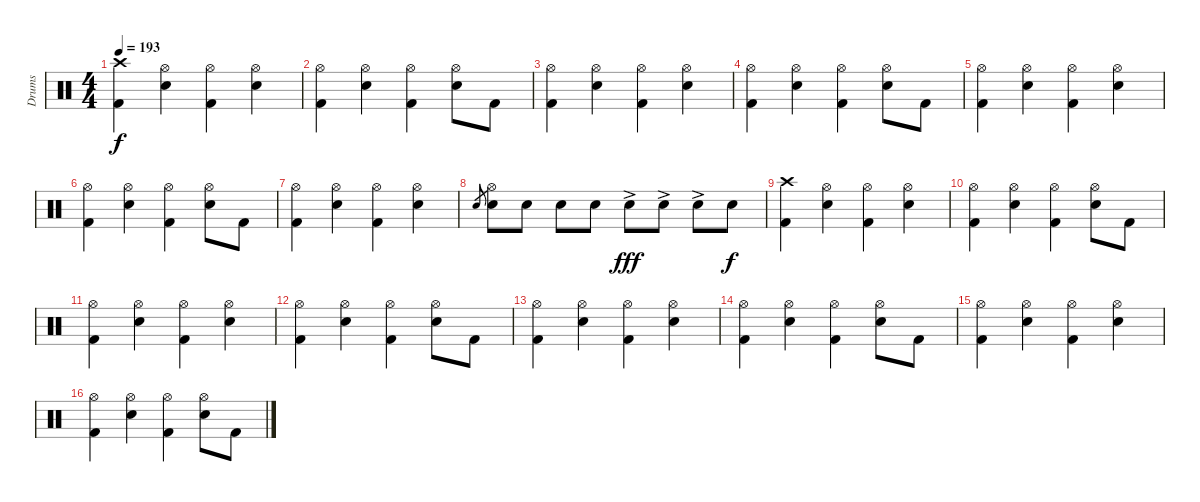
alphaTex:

\track ("Drums" "Drums") {instrument percussion}
\staff {score}
\articulation defaults
\ts (4 4)
\tempo 193
\clef neutral
\ks c
("Crash high (hit)" "Kick (hit) 2").4{dy f} ("Hi-Hat (open)" "Electric Snare (hit)").4 ("Hi-Hat (open)" "Kick (hit) 2").4 ("Hi-Hat (open)" "Electric Snare (hit)").4 |
("Hi-Hat (open)" "Kick (hit) 2").4 ("Hi-Hat (open)" "Electric Snare (hit)").4 ("Hi-Hat (open)" "Kick (hit) 2").4 ("Hi-Hat (open)" "Electric Snare (hit)").8 "Kick (hit) 2".8 |
("Hi-Hat (open)" "Kick (hit) 2").4 ("Hi-Hat (open)" "Electric Snare (hit)").4 ("Hi-Hat (open)" "Kick (hit) 2").4 ("Hi-Hat (open)" "Electric Snare (hit)").4 |
("Hi-Hat (open)" "Kick (hit) 2").4 ("Hi-Hat (open)" "Electric Snare (hit)").4 ("Hi-Hat (open)" "Kick (hit) 2").4 ("Hi-Hat (open)" "Electric Snare (hit)").8 "Kick (hit) 2".8 |
("Hi-Hat (open)" "Kick (hit) 2").4 ("Hi-Hat (open)" "Electric Snare (hit)").4 ("Hi-Hat (open)" "Kick (hit) 2").4 ("Hi-Hat (open)" "Electric Snare (hit)").4 |
("Hi-Hat (open)" "Kick (hit) 2").4 ("Hi-Hat (open)" "Electric Snare (hit)").4 ("Hi-Hat (open)" "Kick (hit) 2").4 ("Hi-Hat (open)" "Electric Snare (hit)").8 "Kick (hit) 2".8 |
("Hi-Hat (open)" "Kick (hit) 2").4 ("Hi-Hat (open)" "Electric Snare (hit)").4 ("Hi-Hat (open)" "Kick (hit) 2").4 ("Hi-Hat (open)" "Electric Snare (hit)").4 |
"Electric Snare (hit)".8{gr} ("Hi-Hat (open)" "Electric Snare (hit)").8 "Electric Snare (hit)".8 "Electric Snare (hit)".8 "Electric Snare (hit)".8 "Electric Snare (hit)"{ac}.8{dy fff} "Electric Snare (hit)"{ac}.8 "Electric Snare (hit)"{ac}.8 "Electric Snare (hit)".8{dy f} |
("Crash high (hit)" "Kick (hit) 2").4 ("Hi-Hat (open)" "Electric Snare (hit)").4 ("Hi-Hat (open)" "Kick (hit) 2").4 ("Hi-Hat (open)" "Electric Snare (hit)").4 |
("Hi-Hat (open)" "Kick (hit) 2").4 ("Hi-Hat (open)" "Electric Snare (hit)").4 ("Hi-Hat (open)" "Kick (hit) 2").4 ("Hi-Hat (open)" "Electric Snare (hit)").8 "Kick (hit) 2".8 |
("Hi-Hat (open)" "Kick (hit) 2").4 ("Hi-Hat (open)" "Electric Snare (hit)").4 ("Hi-Hat (open)" "Kick (hit) 2").4 ("Hi-Hat (open)" "Electric Snare (hit)").4 |
("Hi-Hat (open)" "Kick (hit) 2").4 ("Hi-Hat (open)" "Electric Snare (hit)").4 ("Hi-Hat (open)" "Kick (hit) 2").4 ("Hi-Hat (open)" "Electric Snare (hit)").8 "Kick (hit) 2".8 |
("Hi-Hat (open)" "Kick (hit) 2").4 ("Hi-Hat (open)" "Electric Snare (hit)").4 ("Hi-Hat (open)" "Kick (hit) 2").4 ("Hi-Hat (open)" "Electric Snare (hit)").4 |
("Hi-Hat (open)" "Kick (hit) 2").4 ("Hi-Hat (open)" "Electric Snare (hit)").4 ("Hi-Hat (open)" "Kick (hit) 2").4 ("Hi-Hat (open)" "Electric Snare (hit)").8 "Kick (hit) 2".8 |
("Hi-Hat (open)" "Kick (hit) 2").4 ("Hi-Hat (open)" "Electric Snare (hit)").4 ("Hi-Hat (open)" "Kick (hit) 2").4 ("Hi-Hat (open)" "Electric Snare (hit)").4 |
("Hi-Hat (open)" "Kick (hit) 2").4 ("Hi-Hat (open)" "Electric Snare (hit)").4 ("Hi-Hat (open)" "Kick (hit) 2").4 ("Hi-Hat (open)" "Electric Snare (hit)").8 "Kick (hit) 2".8
